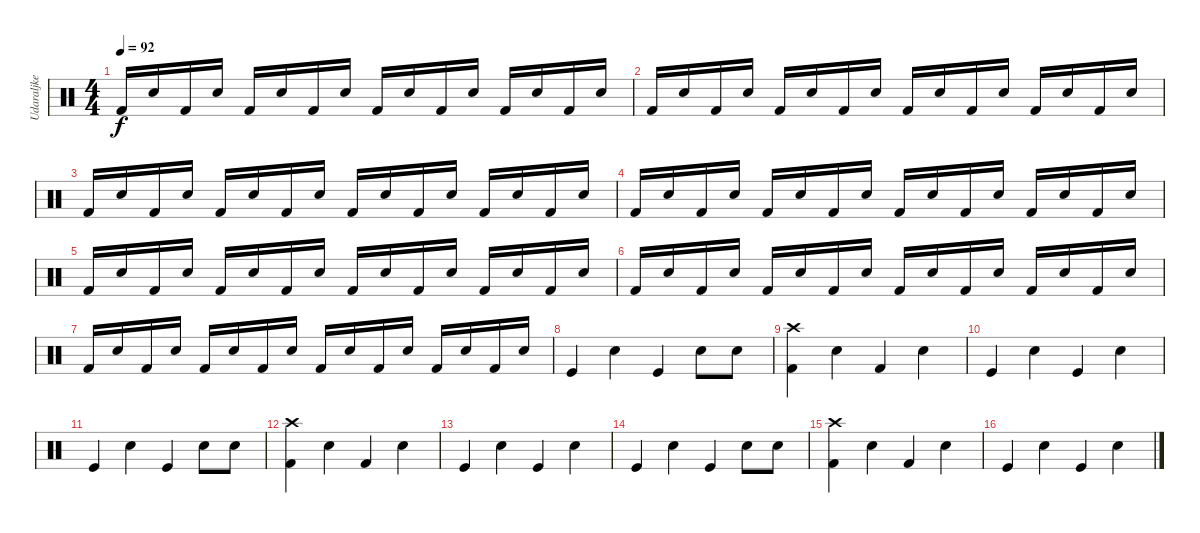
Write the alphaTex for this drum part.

\track ("Udaraljke" "Udaraljke") {instrument percussion}
\staff {score}
\articulation defaults
\ts (4 4)
\tempo 92
\clef neutral
\ks c "Kick (hit) 2".16{dy f} "Electric Snare (hit)".16 "Kick (hit) 2".16 "Electric Snare (hit)".16 "Kick (hit) 2".16 "Electric Snare (hit)".16 "Kick (hit) 2".16 "Electric Snare (hit)".16 "Kick (hit) 2".16 "Electric Snare (hit)".16 "Kick (hit) 2".16 "Electric Snare (hit)".16 "Kick (hit) 2".16 "Electric Snare (hit)".16 "Kick (hit) 2".16 "Snare (hit) 2".16
|
"Kick (hit) 2".16 "Electric Snare (hit)".16 "Kick (hit) 2".16 "Electric Snare (hit)".16 "Kick (hit) 2".16 "Electric Snare (hit)".16 "Kick (hit) 2".16 "Electric Snare (hit)".16 "Kick (hit) 2".16 "Electric Snare (hit)".16 "Kick (hit) 2".16 "Electric Snare (hit)".16 "Kick (hit) 2".16 "Electric Snare (hit)".16 "Kick (hit) 2".16 "Snare (hit) 2".16 |
"Kick (hit) 2".16 "Electric Snare (hit)".16 "Kick (hit) 2".16 "Electric Snare (hit)".16 "Kick (hit) 2".16 "Electric Snare (hit)".16 "Kick (hit) 2".16 "Electric Snare (hit)".16 "Kick (hit) 2".16 "Electric Snare (hit)".16 "Kick (hit) 2".16 "Electric Snare (hit)".16 "Kick (hit) 2".16 "Electric Snare (hit)".16 "Kick (hit) 2".16 "Snare (hit) 2".16 |
"Kick (hit) 2".16 "Electric Snare (hit)".16 "Kick (hit) 2".16 "Electric Snare (hit)".16 "Kick (hit) 2".16 "Electric Snare (hit)".16 "Kick (hit) 2".16 "Electric Snare (hit)".16 "Kick (hit) 2".16 "Electric Snare (hit)".16 "Kick (hit) 2".16 "Electric Snare (hit)".16 "Kick (hit) 2".16 "Electric Snare (hit)".16 "Kick (hit) 2".16 "Snare (hit) 2".16 |
"Kick (hit) 2".16 "Electric Snare (hit)".16 "Kick (hit) 2".16 "Electric Snare (hit)".16 "Kick (hit) 2".16 "Electric Snare (hit)".16 "Kick (hit) 2".16 "Electric Snare (hit)".16 "Kick (hit) 2".16 "Electric Snare (hit)".16 "Kick (hit) 2".16 "Electric Snare (hit)".16 "Kick (hit) 2".16 "Electric Snare (hit)".16 "Kick (hit) 2".16 "Snare (hit) 2".16 |
"Kick (hit) 2".16 "Electric Snare (hit)".16 "Kick (hit) 2".16 "Electric Snare (hit)".16 "Kick (hit) 2".16 "Electric Snare (hit)".16 "Kick (hit) 2".16 "Electric Snare (hit)".16 "Kick (hit) 2".16 "Electric Snare (hit)".16 "Kick (hit) 2".16 "Electric Snare (hit)".16 "Kick (hit) 2".16 "Electric Snare (hit)".16 "Kick (hit) 2".16 "Snare (hit) 2".16 |
"Kick (hit) 2".16 "Electric Snare (hit)".16 "Kick (hit) 2".16 "Electric Snare (hit)".16 "Kick (hit) 2".16 "Electric Snare (hit)".16 "Kick (hit) 2".16 "Electric Snare (hit)".16 "Kick (hit) 2".16 "Electric Snare (hit)".16 "Kick (hit) 2".16 "Electric Snare (hit)".16 "Kick (hit) 2".16 "Electric Snare (hit)".16 "Kick (hit) 2".16 "Snare (hit) 2".16 |
"Kick (hit)".4 "Electric Snare (hit)".4 "Kick (hit)".4 "Electric Snare (hit)".8 "Snare (hit) 2".8 |
("Crash high (hit)" "Kick (hit) 2").4 "Electric Snare (hit)".4 "Kick (hit) 2".4 "Electric Snare (hit)".4 |
"Kick (hit)".4 "Electric Snare (hit)".4 "Kick (hit)".4 "Electric Snare (hit)".4 |
"Kick (hit)".4 "Electric Snare (hit)".4 "Kick (hit)".4 "Electric Snare (hit)".8 "Snare (hit) 2".8 |
("Crash high (hit)" "Kick (hit) 2").4 "Electric Snare (hit)".4 "Kick (hit) 2".4 "Electric Snare (hit)".4 |
"Kick (hit)".4 "Electric Snare (hit)".4 "Kick (hit)".4 "Electric Snare (hit)".4 |
"Kick (hit)".4 "Electric Snare (hit)".4 "Kick (hit)".4 "Electric Snare (hit)".8 "Snare (hit) 2".8 |
("Crash high (hit)" "Kick (hit) 2").4 "Electric Snare (hit)".4 "Kick (hit) 2".4 "Electric Snare (hit)".4 |
"Kick (hit)".4 "Electric Snare (hit)".4 "Kick (hit)".4 "Electric Snare (hit)".4
